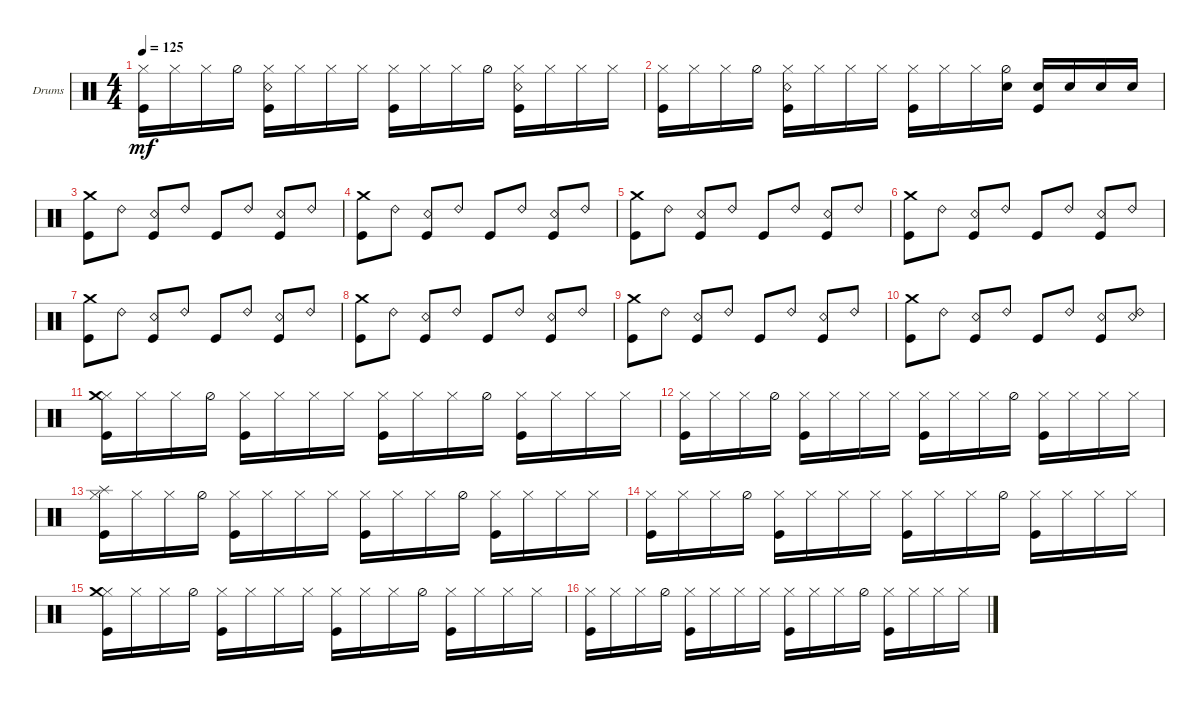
\defaultSystemsLayout 4
\bracketExtendMode groupsimilarinstruments
\firstSystemTrackNameOrientation horizontal
\otherSystemsTrackNameOrientation horizontal
\track ("Drumkit" "Drums") {instrument percussion}
\staff {score}
\articulation defaults
\ts (4 4)
\tempo 125
\clef neutral
\ks c
("Hi-Hat (closed)" "Kick (hit)").16{dy mf} "Hi-Hat (closed)".16 "Hi-Hat (closed)".16 "Hi-Hat (half)".16 ("Hi-Hat (closed)" "Kick (hit)" "Snare (rim shot)").16 "Hi-Hat (closed)".16 "Hi-Hat (closed)".16 "Hi-Hat (closed)".16 ("Hi-Hat (closed)" "Kick (hit)").16 "Hi-Hat (closed)".16 "Hi-Hat (closed)".16 "Hi-Hat (half)".16 ("Hi-Hat (closed)" "Kick (hit)" "Snare (rim shot)").16 "Hi-Hat (closed)".16 "Hi-Hat (closed)".16 "Hi-Hat (closed)".16 |
("Hi-Hat (closed)" "Kick (hit)").16 "Hi-Hat (closed)".16 "Hi-Hat (closed)".16 "Hi-Hat (half)".16 ("Hi-Hat (closed)" "Kick (hit)" "Snare (rim shot)").16 "Hi-Hat (closed)".16 "Hi-Hat (closed)".16 "Hi-Hat (closed)".16 ("Hi-Hat (closed)" "Kick (hit)").16 "Hi-Hat (closed)".16 "Hi-Hat (closed)".16 ("Hi-Hat (half)" "Snare (hit) 2").16 ("Kick (hit)" "Snare (hit) 2").16 "Snare (hit) 2".16 "Snare (hit) 2".16 "Snare (hit) 2".16 |
("Kick (hit)" "Crash medium (hit)").8 "Ride (bell) 2".8 ("Kick (hit)" "Snare (rim shot)").8 "Ride (bell) 2".8 "Kick (hit)".8 "Ride (bell) 2".8 ("Kick (hit)" "Snare (rim shot)").8 "Ride (bell) 2".8 |
("Kick (hit)" "Crash medium (hit)").8 "Ride (bell) 2".8 ("Kick (hit)" "Snare (rim shot)").8 "Ride (bell) 2".8 "Kick (hit)".8 "Ride (bell) 2".8 ("Kick (hit)" "Snare (rim shot)").8 "Ride (bell) 2".8 |
("Kick (hit)" "Crash medium (hit)").8 "Ride (bell) 2".8 ("Kick (hit)" "Snare (rim shot)").8 "Ride (bell) 2".8 "Kick (hit)".8 "Ride (bell) 2".8 ("Kick (hit)" "Snare (rim shot)").8 "Ride (bell) 2".8 |
("Kick (hit)" "Crash medium (hit)").8 "Ride (bell) 2".8 ("Kick (hit)" "Snare (rim shot)").8 "Ride (bell) 2".8 "Kick (hit)".8 "Ride (bell) 2".8 ("Kick (hit)" "Snare (rim shot)").8 "Ride (bell) 2".8 |
("Kick (hit)" "Crash medium (hit)").8 "Ride (bell) 2".8 ("Kick (hit)" "Snare (rim shot)").8 "Ride (bell) 2".8 "Kick (hit)".8 "Ride (bell) 2".8 ("Kick (hit)" "Snare (rim shot)").8 "Ride (bell) 2".8 |
("Kick (hit)" "Crash medium (hit)").8 "Ride (bell) 2".8 ("Kick (hit)" "Snare (rim shot)").8 "Ride (bell) 2".8 "Kick (hit)".8 "Ride (bell) 2".8 ("Kick (hit)" "Snare (rim shot)").8 "Ride (bell) 2".8 |
("Kick (hit)" "Crash medium (hit)").8 "Ride (bell) 2".8 ("Kick (hit)" "Snare (rim shot)").8 "Ride (bell) 2".8 "Kick (hit)".8 "Ride (bell) 2".8 ("Kick (hit)" "Snare (rim shot)").8 "Ride (bell) 2".8 |
("Kick (hit)" "Crash medium (hit)").8 "Ride (bell) 2".8 ("Kick (hit)" "Snare (rim shot)").8 "Ride (bell) 2".8 "Kick (hit)".8 "Ride (bell) 2".8 ("Kick (hit)" "Snare (rim shot)").8 ("Ride (bell) 2" "Snare (rim shot)").8 |
("Hi-Hat (closed)" "Kick (hit)" "Crash medium (hit)").16 "Hi-Hat (closed)".16 "Hi-Hat (closed)".16 "Hi-Hat (half)".16 ("Hi-Hat (closed)" "Kick (hit)").16 "Hi-Hat (closed)".16 "Hi-Hat (closed)".16 "Hi-Hat (closed)".16 ("Hi-Hat (closed)" "Kick (hit)").16 "Hi-Hat (closed)".16 "Hi-Hat (closed)".16 "Hi-Hat (half)".16 ("Hi-Hat (closed)" "Kick (hit)").16 "Hi-Hat (closed)".16 "Hi-Hat (closed)".16 "Hi-Hat (closed)".16 |
("Hi-Hat (closed)" "Kick (hit)").16 "Hi-Hat (closed)".16 "Hi-Hat (closed)".16 "Hi-Hat (half)".16 ("Hi-Hat (closed)" "Kick (hit)").16 "Hi-Hat (closed)".16 "Hi-Hat (closed)".16 "Hi-Hat (closed)".16 ("Hi-Hat (closed)" "Kick (hit)").16 "Hi-Hat (closed)".16 "Hi-Hat (closed)".16 "Hi-Hat (half)".16 ("Hi-Hat (closed)" "Kick (hit)").16 "Hi-Hat (closed)".16 "Hi-Hat (closed)".16 "Hi-Hat (closed)".16 |
("Hi-Hat (closed)" "Kick (hit)" "Splash (hit)").16 "Hi-Hat (closed)".16 "Hi-Hat (closed)".16 "Hi-Hat (half)".16 ("Hi-Hat (closed)" "Kick (hit)").16 "Hi-Hat (closed)".16 "Hi-Hat (closed)".16 "Hi-Hat (closed)".16 ("Hi-Hat (closed)" "Kick (hit)").16 "Hi-Hat (closed)".16 "Hi-Hat (closed)".16 "Hi-Hat (half)".16 ("Hi-Hat (closed)" "Kick (hit)").16 "Hi-Hat (closed)".16 "Hi-Hat (closed)".16 "Hi-Hat (closed)".16 |
("Hi-Hat (closed)" "Kick (hit)").16 "Hi-Hat (closed)".16 "Hi-Hat (closed)".16 "Hi-Hat (half)".16 ("Hi-Hat (closed)" "Kick (hit)").16 "Hi-Hat (closed)".16 "Hi-Hat (closed)".16 "Hi-Hat (closed)".16 ("Hi-Hat (closed)" "Kick (hit)").16 "Hi-Hat (closed)".16 "Hi-Hat (closed)".16 "Hi-Hat (half)".16 ("Hi-Hat (closed)" "Kick (hit)").16 "Hi-Hat (closed)".16 "Hi-Hat (closed)".16 "Hi-Hat (closed)".16 |
("Hi-Hat (closed)" "Kick (hit)" "Crash medium (hit)").16 "Hi-Hat (closed)".16 "Hi-Hat (closed)".16 "Hi-Hat (half)".16 ("Hi-Hat (closed)" "Kick (hit)").16 "Hi-Hat (closed)".16 "Hi-Hat (closed)".16 "Hi-Hat (closed)".16 ("Hi-Hat (closed)" "Kick (hit)").16 "Hi-Hat (closed)".16 "Hi-Hat (closed)".16 "Hi-Hat (half)".16 ("Hi-Hat (closed)" "Kick (hit)").16 "Hi-Hat (closed)".16 "Hi-Hat (closed)".16 "Hi-Hat (closed)".16 |
("Hi-Hat (closed)" "Kick (hit)").16 "Hi-Hat (closed)".16 "Hi-Hat (closed)".16 "Hi-Hat (half)".16 ("Hi-Hat (closed)" "Kick (hit)").16 "Hi-Hat (closed)".16 "Hi-Hat (closed)".16 "Hi-Hat (closed)".16 ("Hi-Hat (closed)" "Kick (hit)").16 "Hi-Hat (closed)".16 "Hi-Hat (closed)".16 "Hi-Hat (half)".16 ("Hi-Hat (closed)" "Kick (hit)").16 "Hi-Hat (closed)".16 "Hi-Hat (closed)".16 "Hi-Hat (closed)".16
